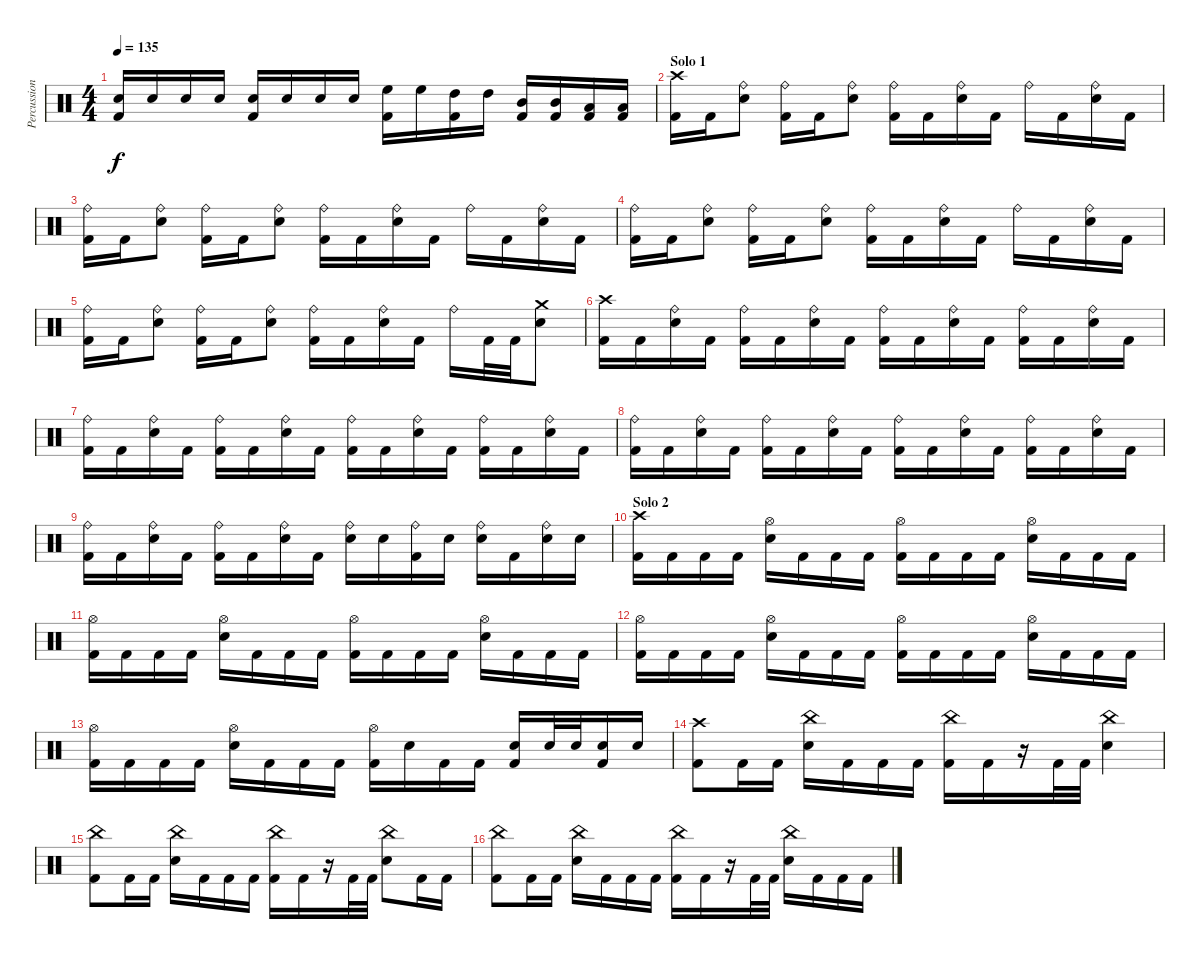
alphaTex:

\track ("Percussion" "Percussion") {instrument percussion}
\staff {score}
\articulation defaults
\ts (4 4)
\tempo 135
\clef neutral
\ks c
("Electric Snare (hit)" "Kick (hit) 2").16{dy f} "Electric Snare (hit)".16 "Electric Snare (hit)".16 "Electric Snare (hit)".16 ("Electric Snare (hit)" "Kick (hit) 2").16 "Electric Snare (hit)".16 "Electric Snare (hit)".16 "Electric Snare (hit)".16 ("High Floor Tom (hit)" "Kick (hit) 2").16 "High Floor Tom (hit)".16 ("High Tom (hit)" "Kick (hit) 2").16 "High Tom (hit)".16 ("Mid Tom (hit)" "Kick (hit) 2").16 ("Mid Tom (hit)" "Kick (hit) 2").16 ("Low Tom (hit)" "Kick (hit) 2").16 ("Low Tom (hit)" "Kick (hit) 2").16 |
\section ("" "Solo 1")
("Kick (hit) 2" "Crash high (hit)").16 "Kick (hit) 2".16 ("Electric Snare (hit)" "Ride (bell)").8 ("Kick (hit) 2" "Ride (bell)").16 "Kick (hit) 2".16 ("Electric Snare (hit)" "Ride (bell)").8 ("Kick (hit) 2" "Ride (bell)").16 "Kick (hit) 2".16 ("Electric Snare (hit)" "Ride (bell)").16 "Kick (hit) 2".16 "Ride (bell)".16 "Kick (hit) 2".16 ("Electric Snare (hit)" "Ride (bell)").16 "Kick (hit) 2".16 |
("Kick (hit) 2" "Ride (bell)").16 "Kick (hit) 2".16 ("Electric Snare (hit)" "Ride (bell)").8 ("Kick (hit) 2" "Ride (bell)").16 "Kick (hit) 2".16 ("Electric Snare (hit)" "Ride (bell)").8 ("Kick (hit) 2" "Ride (bell)").16 "Kick (hit) 2".16 ("Electric Snare (hit)" "Ride (bell)").16 "Kick (hit) 2".16 "Ride (bell)".16 "Kick (hit) 2".16 ("Electric Snare (hit)" "Ride (bell)").16 "Kick (hit) 2".16 |
("Kick (hit) 2" "Ride (bell)").16 "Kick (hit) 2".16 ("Electric Snare (hit)" "Ride (bell)").8 ("Kick (hit) 2" "Ride (bell)").16 "Kick (hit) 2".16 ("Electric Snare (hit)" "Ride (bell)").8 ("Kick (hit) 2" "Ride (bell)").16 "Kick (hit) 2".16 ("Electric Snare (hit)" "Ride (bell)").16 "Kick (hit) 2".16 "Ride (bell)".16 "Kick (hit) 2".16 ("Electric Snare (hit)" "Ride (bell)").16 "Kick (hit) 2".16 |
("Kick (hit) 2" "Ride (bell)").16 "Kick (hit) 2".16 ("Electric Snare (hit)" "Ride (bell)").8 ("Kick (hit) 2" "Ride (bell)").16 "Kick (hit) 2".16 ("Electric Snare (hit)" "Ride (bell)").8 ("Kick (hit) 2" "Ride (bell)").16 "Kick (hit) 2".16 ("Electric Snare (hit)" "Ride (bell)").16 "Kick (hit) 2".16 "Ride (bell)".16 "Kick (hit) 2".32 "Kick (hit) 2".32 ("Electric Snare (hit)" "Crash medium (hit)").8 |
("Kick (hit) 2" "Crash high (hit)").16 "Kick (hit) 2".16 ("Electric Snare (hit)" "Ride (bell)").16 "Kick (hit) 2".16 ("Kick (hit) 2" "Ride (bell)").16 "Kick (hit) 2".16 ("Electric Snare (hit)" "Ride (bell)").16 "Kick (hit) 2".16 ("Kick (hit) 2" "Ride (bell)").16 "Kick (hit) 2".16 ("Electric Snare (hit)" "Ride (bell)").16 "Kick (hit) 2".16 ("Kick (hit) 2" "Ride (bell)").16 "Kick (hit) 2".16 ("Electric Snare (hit)" "Ride (bell)").16 "Kick (hit) 2".16 |
("Kick (hit) 2" "Ride (bell)").16 "Kick (hit) 2".16 ("Electric Snare (hit)" "Ride (bell)").16 "Kick (hit) 2".16 ("Kick (hit) 2" "Ride (bell)").16 "Kick (hit) 2".16 ("Electric Snare (hit)" "Ride (bell)").16 "Kick (hit) 2".16 ("Kick (hit) 2" "Ride (bell)").16 "Kick (hit) 2".16 ("Electric Snare (hit)" "Ride (bell)").16 "Kick (hit) 2".16 ("Kick (hit) 2" "Ride (bell)").16 "Kick (hit) 2".16 ("Electric Snare (hit)" "Ride (bell)").16 "Kick (hit) 2".16 |
("Kick (hit) 2" "Ride (bell)").16 "Kick (hit) 2".16 ("Electric Snare (hit)" "Ride (bell)").16 "Kick (hit) 2".16 ("Kick (hit) 2" "Ride (bell)").16 "Kick (hit) 2".16 ("Electric Snare (hit)" "Ride (bell)").16 "Kick (hit) 2".16 ("Kick (hit) 2" "Ride (bell)").16 "Kick (hit) 2".16 ("Electric Snare (hit)" "Ride (bell)").16 "Kick (hit) 2".16 ("Kick (hit) 2" "Ride (bell)").16 "Kick (hit) 2".16 ("Electric Snare (hit)" "Ride (bell)").16 "Kick (hit) 2".16 |
("Kick (hit) 2" "Ride (bell)").16 "Kick (hit) 2".16 ("Electric Snare (hit)" "Ride (bell)").16 "Kick (hit) 2".16 ("Kick (hit) 2" "Ride (bell)").16 "Kick (hit) 2".16 ("Electric Snare (hit)" "Ride (bell)").16 "Kick (hit) 2".16 ("Electric Snare (hit)" "Ride (bell)").16 "Electric Snare (hit)".16 ("Kick (hit) 2" "Ride (bell)").16 "Electric Snare (hit)".16 ("Electric Snare (hit)" "Ride (bell)").16 "Kick (hit) 2".16 ("Electric Snare (hit)" "Ride (bell)").16 "Electric Snare (hit)".16 |
\section ("" "Solo 2")
("Kick (hit) 2" "Crash high (hit)").16 "Kick (hit) 2".16 "Kick (hit) 2".16 "Kick (hit) 2".16 ("Electric Snare (hit)" "Hi-Hat (open)").16 "Kick (hit) 2".16 "Kick (hit) 2".16 "Kick (hit) 2".16 ("Kick (hit) 2" "Hi-Hat (open)").16 "Kick (hit) 2".16 "Kick (hit) 2".16 "Kick (hit) 2".16 ("Electric Snare (hit)" "Hi-Hat (open)").16 "Kick (hit) 2".16 "Kick (hit) 2".16 "Kick (hit) 2".16 |
("Kick (hit) 2" "Hi-Hat (open)").16 "Kick (hit) 2".16 "Kick (hit) 2".16 "Kick (hit) 2".16 ("Electric Snare (hit)" "Hi-Hat (open)").16 "Kick (hit) 2".16 "Kick (hit) 2".16 "Kick (hit) 2".16 ("Kick (hit) 2" "Hi-Hat (open)").16 "Kick (hit) 2".16 "Kick (hit) 2".16 "Kick (hit) 2".16 ("Electric Snare (hit)" "Hi-Hat (open)").16 "Kick (hit) 2".16 "Kick (hit) 2".16 "Kick (hit) 2".16 |
("Kick (hit) 2" "Hi-Hat (open)").16 "Kick (hit) 2".16 "Kick (hit) 2".16 "Kick (hit) 2".16 ("Electric Snare (hit)" "Hi-Hat (open)").16 "Kick (hit) 2".16 "Kick (hit) 2".16 "Kick (hit) 2".16 ("Kick (hit) 2" "Hi-Hat (open)").16 "Kick (hit) 2".16 "Kick (hit) 2".16 "Kick (hit) 2".16 ("Electric Snare (hit)" "Hi-Hat (open)").16 "Kick (hit) 2".16 "Kick (hit) 2".16 "Kick (hit) 2".16 |
("Kick (hit) 2" "Hi-Hat (open)").16 "Kick (hit) 2".16 "Kick (hit) 2".16 "Kick (hit) 2".16 ("Electric Snare (hit)" "Hi-Hat (open)").16 "Kick (hit) 2".16 "Kick (hit) 2".16 "Kick (hit) 2".16 ("Kick (hit) 2" "Hi-Hat (open)").16 "Electric Snare (hit)".16 "Kick (hit) 2".16 "Kick (hit) 2".16 ("Electric Snare (hit)" "Kick (hit) 2").16 "Electric Snare (hit)".32 "Electric Snare (hit)".32 ("Electric Snare (hit)" "Kick (hit) 2").16 "Electric Snare (hit)".16 |
("Kick (hit) 2" "Crash high (hit)").8 "Kick (hit) 2".16 "Kick (hit) 2".16 ("Electric Snare (hit)" "China (hit)").16 "Kick (hit) 2".16 "Kick (hit) 2".16 "Kick (hit) 2".16 ("Kick (hit) 2" "China (hit)").16 "Kick (hit) 2".16 r.16 "Kick (hit) 2".32 "Kick (hit) 2".32 ("Electric Snare (hit)" "China (hit)").4 |
("Kick (hit) 2" "China (hit)").8 "Kick (hit) 2".16 "Kick (hit) 2".16 ("Electric Snare (hit)" "China (hit)").16 "Kick (hit) 2".16 "Kick (hit) 2".16 "Kick (hit) 2".16 ("Kick (hit) 2" "China (hit)").16 "Kick (hit) 2".16 r.16 "Kick (hit) 2".32 "Kick (hit) 2".32 ("Electric Snare (hit)" "China (hit)").8 "Kick (hit) 2".16 "Kick (hit) 2".16 |
("Kick (hit) 2" "China (hit)").8 "Kick (hit) 2".16 "Kick (hit) 2".16 ("Electric Snare (hit)" "China (hit)").16 "Kick (hit) 2".16 "Kick (hit) 2".16 "Kick (hit) 2".16 ("Kick (hit) 2" "China (hit)").16 "Kick (hit) 2".16 r.16 "Kick (hit) 2".32 "Kick (hit) 2".32 ("Electric Snare (hit)" "China (hit)").16 "Kick (hit) 2".16 "Kick (hit) 2".16 "Kick (hit) 2".16
